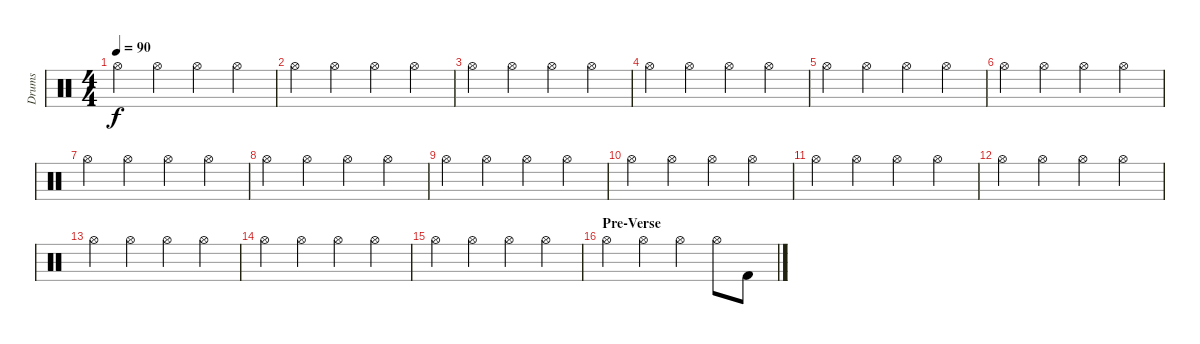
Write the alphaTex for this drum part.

\track ("Drums" "Drums") {instrument percussion}
\staff {score}
\articulation defaults
\ts (4 4)
\tempo 90
\clef neutral
\ks c "Hi-Hat (open)".4{dy f} "Hi-Hat (open)".4 "Hi-Hat (open)".4 "Hi-Hat (open)".4
|
"Hi-Hat (open)".4 "Hi-Hat (open)".4 "Hi-Hat (open)".4 "Hi-Hat (open)".4 |
"Hi-Hat (open)".4 "Hi-Hat (open)".4 "Hi-Hat (open)".4 "Hi-Hat (open)".4 |
"Hi-Hat (open)".4 "Hi-Hat (open)".4 "Hi-Hat (open)".4 "Hi-Hat (open)".4 |
"Hi-Hat (open)".4 "Hi-Hat (open)".4 "Hi-Hat (open)".4 "Hi-Hat (open)".4 |
"Hi-Hat (open)".4 "Hi-Hat (open)".4 "Hi-Hat (open)".4 "Hi-Hat (open)".4 |
"Hi-Hat (open)".4 "Hi-Hat (open)".4 "Hi-Hat (open)".4 "Hi-Hat (open)".4 |
"Hi-Hat (open)".4 "Hi-Hat (open)".4 "Hi-Hat (open)".4 "Hi-Hat (open)".4 |
"Hi-Hat (open)".4 "Hi-Hat (open)".4 "Hi-Hat (open)".4 "Hi-Hat (open)".4 |
"Hi-Hat (open)".4 "Hi-Hat (open)".4 "Hi-Hat (open)".4 "Hi-Hat (open)".4 |
"Hi-Hat (open)".4 "Hi-Hat (open)".4 "Hi-Hat (open)".4 "Hi-Hat (open)".4 |
"Hi-Hat (open)".4 "Hi-Hat (open)".4 "Hi-Hat (open)".4 "Hi-Hat (open)".4 |
"Hi-Hat (open)".4 "Hi-Hat (open)".4 "Hi-Hat (open)".4 "Hi-Hat (open)".4 |
"Hi-Hat (open)".4 "Hi-Hat (open)".4 "Hi-Hat (open)".4 "Hi-Hat (open)".4 |
"Hi-Hat (open)".4 "Hi-Hat (open)".4 "Hi-Hat (open)".4 "Hi-Hat (open)".4 |
\section ("" "Pre-Verse")
"Hi-Hat (open)".4 "Hi-Hat (open)".4 "Hi-Hat (open)".4 "Hi-Hat (open)".8 "Kick (hit) 2".8
